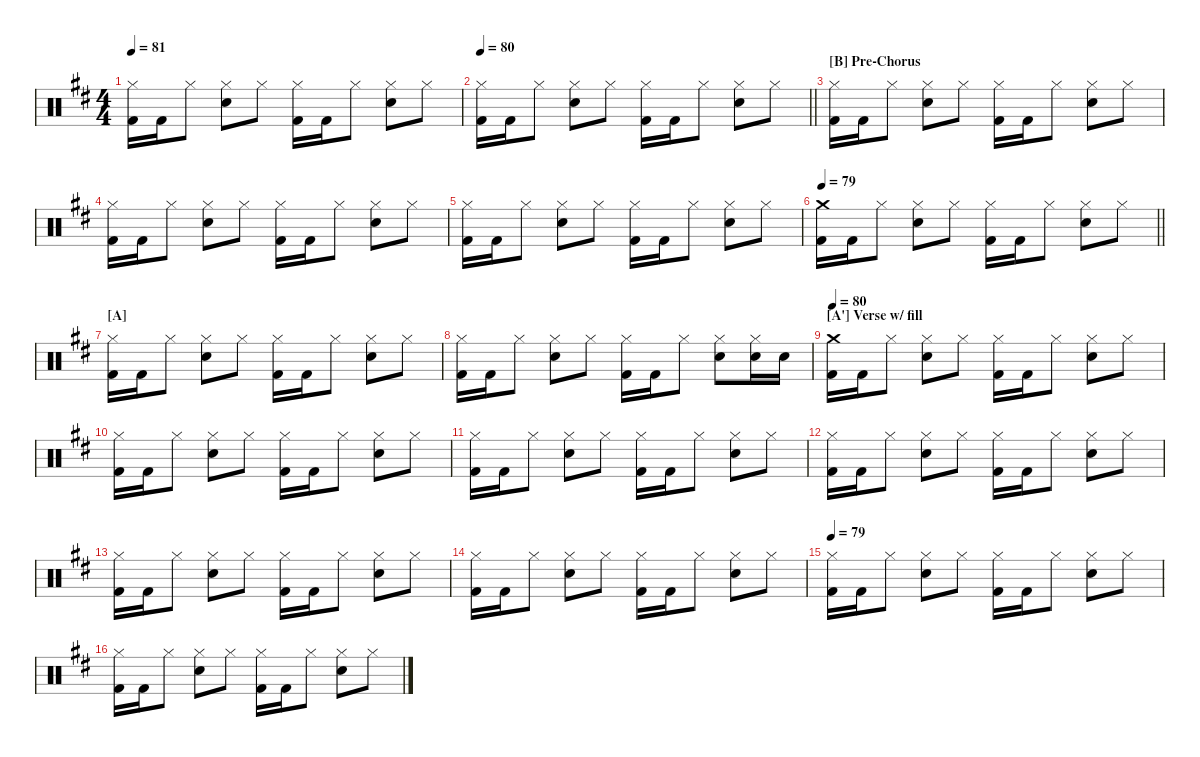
\defaultSystemsLayout 4
\hideDynamics
\bracketExtendMode nobrackets
\singleTrackTrackNamePolicy hidden
\multiTrackTrackNamePolicy hidden
\otherSystemsTrackNameOrientation horizontal
\track ("Drumkit" "Drums") {defaultSystemsLayout 4 instrument percussion}
\staff {score}
\articulation defaults
\ts (4 4)
\tempo 81
\clef neutral
\ks d
("Kick (hit) 2"{acc forcenatural} "Hi-Hat (closed)"{acc forcenatural}).16{dy f beam Down} "Kick (hit) 2"{acc forcenatural}.16{beam Down} "Hi-Hat (closed)"{acc forcenatural}.8{beam Down} ("Snare (hit) 2"{acc forcenatural} "Hi-Hat (closed)"{acc forcenatural}).8{beam Down} "Hi-Hat (closed)"{acc forcenatural}.8{beam Down} ("Kick (hit) 2"{acc forcenatural} "Hi-Hat (closed)"{acc forcenatural}).16{beam Down} "Kick (hit) 2"{acc forcenatural}.16{beam Down} "Hi-Hat (closed)"{acc forcenatural}.8{beam Down} ("Snare (hit) 2"{acc forcenatural} "Hi-Hat (closed)"{acc forcenatural}).8{beam Down} "Hi-Hat (closed)"{acc forcenatural}.8{beam Down} |
\tempo 80
\barLineRight lightlight
("Kick (hit) 2"{acc forcenatural} "Hi-Hat (closed)"{acc forcenatural}).16{beam Down} "Kick (hit) 2"{acc forcenatural}.16{beam Down} "Hi-Hat (closed)"{acc forcenatural}.8{beam Down} ("Snare (hit) 2"{acc forcenatural} "Hi-Hat (closed)"{acc forcenatural}).8{beam Down} "Hi-Hat (closed)"{acc forcenatural}.8{beam Down} ("Kick (hit) 2"{acc forcenatural} "Hi-Hat (closed)"{acc forcenatural}).16{beam Down} "Kick (hit) 2"{acc forcenatural}.16{beam Down} "Hi-Hat (closed)"{acc forcenatural}.8{beam Down} ("Snare (hit) 2"{acc forcenatural} "Hi-Hat (closed)"{acc forcenatural}).8{beam Down} "Hi-Hat (closed)"{acc forcenatural}.8{beam Down} |
\section ("B" "Pre-Chorus")
("Kick (hit) 2"{acc forcenatural} "Hi-Hat (closed)"{acc forcenatural}).16{beam Down} "Kick (hit) 2"{acc forcenatural}.16{beam Down} "Hi-Hat (closed)"{acc forcenatural}.8{beam Down} ("Snare (hit) 2"{acc forcenatural} "Hi-Hat (closed)"{acc forcenatural}).8{beam Down} "Hi-Hat (closed)"{acc forcenatural}.8{beam Down} ("Kick (hit) 2"{acc forcenatural} "Hi-Hat (closed)"{acc forcenatural}).16{beam Down} "Kick (hit) 2"{acc forcenatural}.16{beam Down} "Hi-Hat (closed)"{acc forcenatural}.8{beam Down} ("Snare (hit) 2"{acc forcenatural} "Hi-Hat (closed)"{acc forcenatural}).8{beam Down} "Hi-Hat (closed)"{acc forcenatural}.8{beam Down} |
("Kick (hit) 2"{acc forcenatural} "Hi-Hat (closed)"{acc forcenatural}).16{beam Down} "Kick (hit) 2"{acc forcenatural}.16{beam Down} "Hi-Hat (closed)"{acc forcenatural}.8{beam Down} ("Snare (hit) 2"{acc forcenatural} "Hi-Hat (closed)"{acc forcenatural}).8{beam Down} "Hi-Hat (closed)"{acc forcenatural}.8{beam Down} ("Kick (hit) 2"{acc forcenatural} "Hi-Hat (closed)"{acc forcenatural}).16{beam Down} "Kick (hit) 2"{acc forcenatural}.16{beam Down} "Hi-Hat (closed)"{acc forcenatural}.8{beam Down} ("Snare (hit) 2"{acc forcenatural} "Hi-Hat (closed)"{acc forcenatural}).8{beam Down} "Hi-Hat (closed)"{acc forcenatural}.8{beam Down} |
("Kick (hit) 2"{acc forcenatural} "Hi-Hat (closed)"{acc forcenatural}).16{beam Down} "Kick (hit) 2"{acc forcenatural}.16{beam Down} "Hi-Hat (closed)"{acc forcenatural}.8{beam Down} ("Snare (hit) 2"{acc forcenatural} "Hi-Hat (closed)"{acc forcenatural}).8{beam Down} "Hi-Hat (closed)"{acc forcenatural}.8{beam Down} ("Kick (hit) 2"{acc forcenatural} "Hi-Hat (closed)"{acc forcenatural}).16{beam Down} "Kick (hit) 2"{acc forcenatural}.16{beam Down} "Hi-Hat (closed)"{acc forcenatural}.8{beam Down} ("Snare (hit) 2"{acc forcenatural} "Hi-Hat (closed)"{acc forcenatural}).8{beam Down} "Hi-Hat (closed)"{acc forcenatural}.8{beam Down} |
\tempo 79
\barLineRight lightlight
("Kick (hit) 2"{acc forcenatural} "Crash medium (hit)"{acc forcenatural}).16{beam Down} "Kick (hit) 2"{acc forcenatural}.16{beam Down} "Hi-Hat (closed)"{acc forcenatural}.8{beam Down} ("Snare (hit) 2"{acc forcenatural} "Hi-Hat (closed)"{acc forcenatural}).8{beam Down} "Hi-Hat (closed)"{acc forcenatural}.8{beam Down} ("Kick (hit) 2"{acc forcenatural} "Hi-Hat (closed)"{acc forcenatural}).16{beam Down} "Kick (hit) 2"{acc forcenatural}.16{beam Down} "Hi-Hat (closed)"{acc forcenatural}.8{beam Down} ("Snare (hit) 2"{acc forcenatural} "Hi-Hat (closed)"{acc forcenatural}).8{beam Down} "Hi-Hat (closed)"{acc forcenatural}.8{beam Down} |
\section ("A" "")
("Kick (hit) 2"{acc forcenatural} "Hi-Hat (closed)"{acc forcenatural}).16{beam Down} "Kick (hit) 2"{acc forcenatural}.16{beam Down} "Hi-Hat (closed)"{acc forcenatural}.8{beam Down} ("Snare (hit) 2"{acc forcenatural} "Hi-Hat (closed)"{acc forcenatural}).8{beam Down} "Hi-Hat (closed)"{acc forcenatural}.8{beam Down} ("Kick (hit) 2"{acc forcenatural} "Hi-Hat (closed)"{acc forcenatural}).16{beam Down} "Kick (hit) 2"{acc forcenatural}.16{beam Down} "Hi-Hat (closed)"{acc forcenatural}.8{beam Down} ("Snare (hit) 2"{acc forcenatural} "Hi-Hat (closed)"{acc forcenatural}).8{beam Down} "Hi-Hat (closed)"{acc forcenatural}.8{beam Down} |
("Kick (hit) 2"{acc forcenatural} "Hi-Hat (closed)"{acc forcenatural}).16{beam Down} "Kick (hit) 2"{acc forcenatural}.16{beam Down} "Hi-Hat (closed)"{acc forcenatural}.8{beam Down} ("Snare (hit) 2"{acc forcenatural} "Hi-Hat (closed)"{acc forcenatural}).8{beam Down} "Hi-Hat (closed)"{acc forcenatural}.8{beam Down} ("Kick (hit) 2"{acc forcenatural} "Hi-Hat (closed)"{acc forcenatural}).16{beam Down} "Kick (hit) 2"{acc forcenatural}.16{beam Down} "Hi-Hat (closed)"{acc forcenatural}.8{beam Down} ("Snare (hit) 2"{acc forcenatural} "Hi-Hat (closed)"{acc forcenatural}).8{beam Down} ("Snare (hit) 2"{acc forcenatural} "Hi-Hat (closed)"{acc forcenatural}).16{dy ff beam Down} "Snare (hit) 2"{acc forcenatural}.16{dy f beam Down} |
\section ("A'" "Verse w/ fill")
\tempo 80
("Kick (hit) 2"{acc forcenatural} "Crash medium (hit)"{acc forcenatural}).16{dy ff beam Down} "Kick (hit) 2"{acc forcenatural}.16{dy f beam Down} "Hi-Hat (closed)"{acc forcenatural}.8{beam Down} ("Snare (hit) 2"{acc forcenatural} "Hi-Hat (closed)"{acc forcenatural}).8{beam Down} "Hi-Hat (closed)"{acc forcenatural}.8{beam Down} ("Kick (hit) 2"{acc forcenatural} "Hi-Hat (closed)"{acc forcenatural}).16{beam Down} "Kick (hit) 2"{acc forcenatural}.16{beam Down} "Hi-Hat (closed)"{acc forcenatural}.8{beam Down} ("Snare (hit) 2"{acc forcenatural} "Hi-Hat (closed)"{acc forcenatural}).8{beam Down} "Hi-Hat (closed)"{acc forcenatural}.8{beam Down} |
("Kick (hit) 2"{acc forcenatural} "Hi-Hat (closed)"{acc forcenatural}).16{beam Down} "Kick (hit) 2"{acc forcenatural}.16{beam Down} "Hi-Hat (closed)"{acc forcenatural}.8{beam Down} ("Snare (hit) 2"{acc forcenatural} "Hi-Hat (closed)"{acc forcenatural}).8{beam Down} "Hi-Hat (closed)"{acc forcenatural}.8{beam Down} ("Kick (hit) 2"{acc forcenatural} "Hi-Hat (closed)"{acc forcenatural}).16{beam Down} "Kick (hit) 2"{acc forcenatural}.16{beam Down} "Hi-Hat (closed)"{acc forcenatural}.8{beam Down} ("Snare (hit) 2"{acc forcenatural} "Hi-Hat (closed)"{acc forcenatural}).8{beam Down} "Hi-Hat (closed)"{acc forcenatural}.8{beam Down} |
("Kick (hit) 2"{acc forcenatural} "Hi-Hat (closed)"{acc forcenatural}).16{beam Down} "Kick (hit) 2"{acc forcenatural}.16{beam Down} "Hi-Hat (closed)"{acc forcenatural}.8{beam Down} ("Snare (hit) 2"{acc forcenatural} "Hi-Hat (closed)"{acc forcenatural}).8{beam Down} "Hi-Hat (closed)"{acc forcenatural}.8{beam Down} ("Kick (hit) 2"{acc forcenatural} "Hi-Hat (closed)"{acc forcenatural}).16{beam Down} "Kick (hit) 2"{acc forcenatural}.16{beam Down} "Hi-Hat (closed)"{acc forcenatural}.8{beam Down} ("Snare (hit) 2"{acc forcenatural} "Hi-Hat (closed)"{acc forcenatural}).8{beam Down} "Hi-Hat (closed)"{acc forcenatural}.8{beam Down} |
("Kick (hit) 2"{acc forcenatural} "Hi-Hat (closed)"{acc forcenatural}).16{beam Down} "Kick (hit) 2"{acc forcenatural}.16{beam Down} "Hi-Hat (closed)"{acc forcenatural}.8{beam Down} ("Snare (hit) 2"{acc forcenatural} "Hi-Hat (closed)"{acc forcenatural}).8{beam Down} "Hi-Hat (closed)"{acc forcenatural}.8{beam Down} ("Kick (hit) 2"{acc forcenatural} "Hi-Hat (closed)"{acc forcenatural}).16{beam Down} "Kick (hit) 2"{acc forcenatural}.16{beam Down} "Hi-Hat (closed)"{acc forcenatural}.8{beam Down} ("Snare (hit) 2"{acc forcenatural} "Hi-Hat (closed)"{acc forcenatural}).8{beam Down} "Hi-Hat (closed)"{acc forcenatural}.8{beam Down} |
("Kick (hit) 2"{acc forcenatural} "Hi-Hat (closed)"{acc forcenatural}).16{beam Down} "Kick (hit) 2"{acc forcenatural}.16{beam Down} "Hi-Hat (closed)"{acc forcenatural}.8{beam Down} ("Snare (hit) 2"{acc forcenatural} "Hi-Hat (closed)"{acc forcenatural}).8{beam Down} "Hi-Hat (closed)"{acc forcenatural}.8{beam Down} ("Kick (hit) 2"{acc forcenatural} "Hi-Hat (closed)"{acc forcenatural}).16{beam Down} "Kick (hit) 2"{acc forcenatural}.16{beam Down} "Hi-Hat (closed)"{acc forcenatural}.8{beam Down} ("Snare (hit) 2"{acc forcenatural} "Hi-Hat (closed)"{acc forcenatural}).8{beam Down} "Hi-Hat (closed)"{acc forcenatural}.8{beam Down} |
("Kick (hit) 2"{acc forcenatural} "Hi-Hat (closed)"{acc forcenatural}).16{beam Down} "Kick (hit) 2"{acc forcenatural}.16{beam Down} "Hi-Hat (closed)"{acc forcenatural}.8{beam Down} ("Snare (hit) 2"{acc forcenatural} "Hi-Hat (closed)"{acc forcenatural}).8{beam Down} "Hi-Hat (closed)"{acc forcenatural}.8{beam Down} ("Kick (hit) 2"{acc forcenatural} "Hi-Hat (closed)"{acc forcenatural}).16{beam Down} "Kick (hit) 2"{acc forcenatural}.16{beam Down} "Hi-Hat (closed)"{acc forcenatural}.8{beam Down} ("Snare (hit) 2"{acc forcenatural} "Hi-Hat (closed)"{acc forcenatural}).8{beam Down} "Hi-Hat (closed)"{acc forcenatural}.8{beam Down} |
\tempo 79
("Kick (hit) 2"{acc forcenatural} "Hi-Hat (closed)"{acc forcenatural}).16{beam Down} "Kick (hit) 2"{acc forcenatural}.16{beam Down} "Hi-Hat (closed)"{acc forcenatural}.8{beam Down} ("Snare (hit) 2"{acc forcenatural} "Hi-Hat (closed)"{acc forcenatural}).8{beam Down} "Hi-Hat (closed)"{acc forcenatural}.8{beam Down} ("Kick (hit) 2"{acc forcenatural} "Hi-Hat (closed)"{acc forcenatural}).16{beam Down} "Kick (hit) 2"{acc forcenatural}.16{beam Down} "Hi-Hat (closed)"{acc forcenatural}.8{beam Down} ("Snare (hit) 2"{acc forcenatural} "Hi-Hat (closed)"{acc forcenatural}).8{beam Down} "Hi-Hat (closed)"{acc forcenatural}.8{beam Down} |
("Kick (hit) 2"{acc forcenatural} "Hi-Hat (closed)"{acc forcenatural}).16{beam Down} "Kick (hit) 2"{acc forcenatural}.16{beam Down} "Hi-Hat (closed)"{acc forcenatural}.8{beam Down} ("Snare (hit) 2"{acc forcenatural} "Hi-Hat (closed)"{acc forcenatural}).8{beam Down} "Hi-Hat (closed)"{acc forcenatural}.8{beam Down} ("Kick (hit) 2"{acc forcenatural} "Hi-Hat (closed)"{acc forcenatural}).16{beam Down} "Kick (hit) 2"{acc forcenatural}.16{beam Down} "Hi-Hat (closed)"{acc forcenatural}.8{beam Down} ("Snare (hit) 2"{acc forcenatural} "Hi-Hat (closed)"{acc forcenatural}).8{beam Down} "Hi-Hat (closed)"{acc forcenatural}.8{beam Down}
